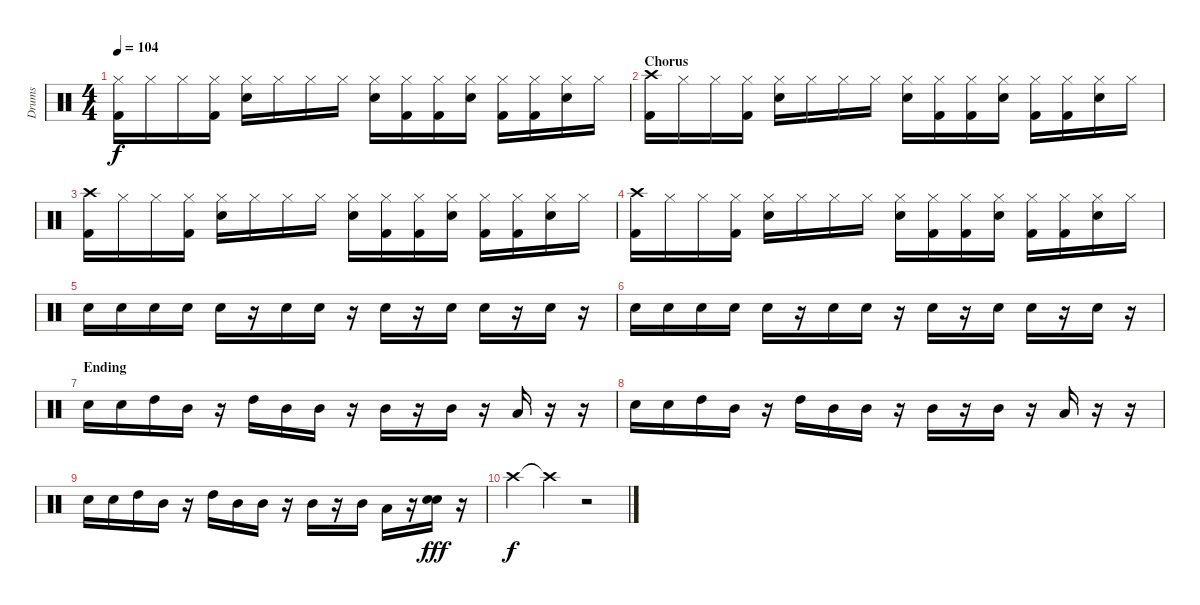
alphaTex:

\track ("Drums" "Drums") {instrument percussion}
\staff {score}
\articulation defaults
\ts (4 4)
\tempo 104
\clef neutral
\ks c
("Hi-Hat (closed)" "Kick (hit) 2").16{dy f} "Hi-Hat (closed)".16 "Hi-Hat (closed)".16 ("Hi-Hat (closed)" "Kick (hit) 2").16 ("Hi-Hat (closed)" "Snare (hit) 2").16 "Hi-Hat (closed)".16 "Hi-Hat (closed)".16 "Hi-Hat (closed)".16 ("Hi-Hat (closed)" "Snare (hit) 2").16 ("Hi-Hat (closed)" "Kick (hit) 2").16 ("Hi-Hat (closed)" "Kick (hit) 2").16 ("Hi-Hat (closed)" "Snare (hit) 2").16 ("Hi-Hat (closed)" "Kick (hit) 2").16 ("Hi-Hat (closed)" "Kick (hit) 2").16 ("Hi-Hat (closed)" "Snare (hit) 2").16 "Hi-Hat (closed)".16 |
\section ("" "Chorus")
("Crash high (hit)" "Kick (hit) 2").16 "Hi-Hat (closed)".16 "Hi-Hat (closed)".16 ("Hi-Hat (closed)" "Kick (hit) 2").16 ("Hi-Hat (closed)" "Snare (hit) 2").16 "Hi-Hat (closed)".16 "Hi-Hat (closed)".16 "Hi-Hat (closed)".16 ("Hi-Hat (closed)" "Snare (hit) 2").16 ("Hi-Hat (closed)" "Kick (hit) 2").16 ("Hi-Hat (closed)" "Kick (hit) 2").16 ("Hi-Hat (closed)" "Snare (hit) 2").16 ("Hi-Hat (closed)" "Kick (hit) 2").16 ("Hi-Hat (closed)" "Kick (hit) 2").16 ("Hi-Hat (closed)" "Snare (hit) 2").16 "Hi-Hat (closed)".16 |
("Crash high (hit)" "Kick (hit) 2").16 "Hi-Hat (closed)".16 "Hi-Hat (closed)".16 ("Hi-Hat (closed)" "Kick (hit) 2").16 ("Hi-Hat (closed)" "Snare (hit) 2").16 "Hi-Hat (closed)".16 "Hi-Hat (closed)".16 "Hi-Hat (closed)".16 ("Hi-Hat (closed)" "Snare (hit) 2").16 ("Hi-Hat (closed)" "Kick (hit) 2").16 ("Hi-Hat (closed)" "Kick (hit) 2").16 ("Hi-Hat (closed)" "Snare (hit) 2").16 ("Hi-Hat (closed)" "Kick (hit) 2").16 ("Hi-Hat (closed)" "Kick (hit) 2").16 ("Hi-Hat (closed)" "Snare (hit) 2").16 "Hi-Hat (closed)".16 |
("Crash high (hit)" "Kick (hit) 2").16 "Hi-Hat (closed)".16 "Hi-Hat (closed)".16 ("Hi-Hat (closed)" "Kick (hit) 2").16 ("Hi-Hat (closed)" "Snare (hit) 2").16 "Hi-Hat (closed)".16 "Hi-Hat (closed)".16 "Hi-Hat (closed)".16 ("Hi-Hat (closed)" "Snare (hit) 2").16 ("Hi-Hat (closed)" "Kick (hit) 2").16 ("Hi-Hat (closed)" "Kick (hit) 2").16 ("Hi-Hat (closed)" "Snare (hit) 2").16 ("Hi-Hat (closed)" "Kick (hit) 2").16 ("Hi-Hat (closed)" "Kick (hit) 2").16 ("Hi-Hat (closed)" "Snare (hit) 2").16 "Hi-Hat (closed)".16 |
"Snare (hit) 2".16 "Snare (hit) 2".16 "Snare (hit) 2".16 "Snare (hit) 2".16 "Snare (hit) 2".16 r.16 "Snare (hit) 2".16 "Snare (hit) 2".16 r.16 "Snare (hit) 2".16 r.16 "Snare (hit) 2".16 "Snare (hit) 2".16 r.16 "Snare (hit) 2".16 r.16 |
"Snare (hit) 2".16 "Snare (hit) 2".16 "Snare (hit) 2".16 "Snare (hit) 2".16 "Snare (hit) 2".16 r.16 "Snare (hit) 2".16 "Snare (hit) 2".16 r.16 "Snare (hit) 2".16 r.16 "Snare (hit) 2".16 "Snare (hit) 2".16 r.16 "Snare (hit) 2".16 r.16 |
\section ("" "Ending")
"Snare (hit) 2".16 "Snare (hit) 2".16 "High Tom (hit)".16 "Mid Tom (hit)".16 r.16 "High Tom (hit)".16 "Mid Tom (hit)".16 "Mid Tom (hit)".16 r.16 "Mid Tom (hit)".16 r.16 "Mid Tom (hit)".16 r.16 "Low Tom (hit)".16 r.16 r.16 |
"Snare (hit) 2".16 "Snare (hit) 2".16 "High Tom (hit)".16 "Mid Tom (hit)".16 r.16 "High Tom (hit)".16 "Mid Tom (hit)".16 "Mid Tom (hit)".16 r.16 "Mid Tom (hit)".16 r.16 "Mid Tom (hit)".16 r.16 "Low Tom (hit)".16 r.16 r.16 |
"Snare (hit) 2".16 "Snare (hit) 2".16 "High Tom (hit)".16 "Mid Tom (hit)".16 r.16 "High Tom (hit)".16 "Mid Tom (hit)".16 "Mid Tom (hit)".16 r.16 "Mid Tom (hit)".16 r.16 "Mid Tom (hit)".16 "Low Tom (hit)".16 r.16 ("Snare (hit) 2" "Snare (hit) 2").16{dy fff} r.16 |
"Crash high (hit)".4{dy f} "Crash high (hit)"{t}.4 r.2
